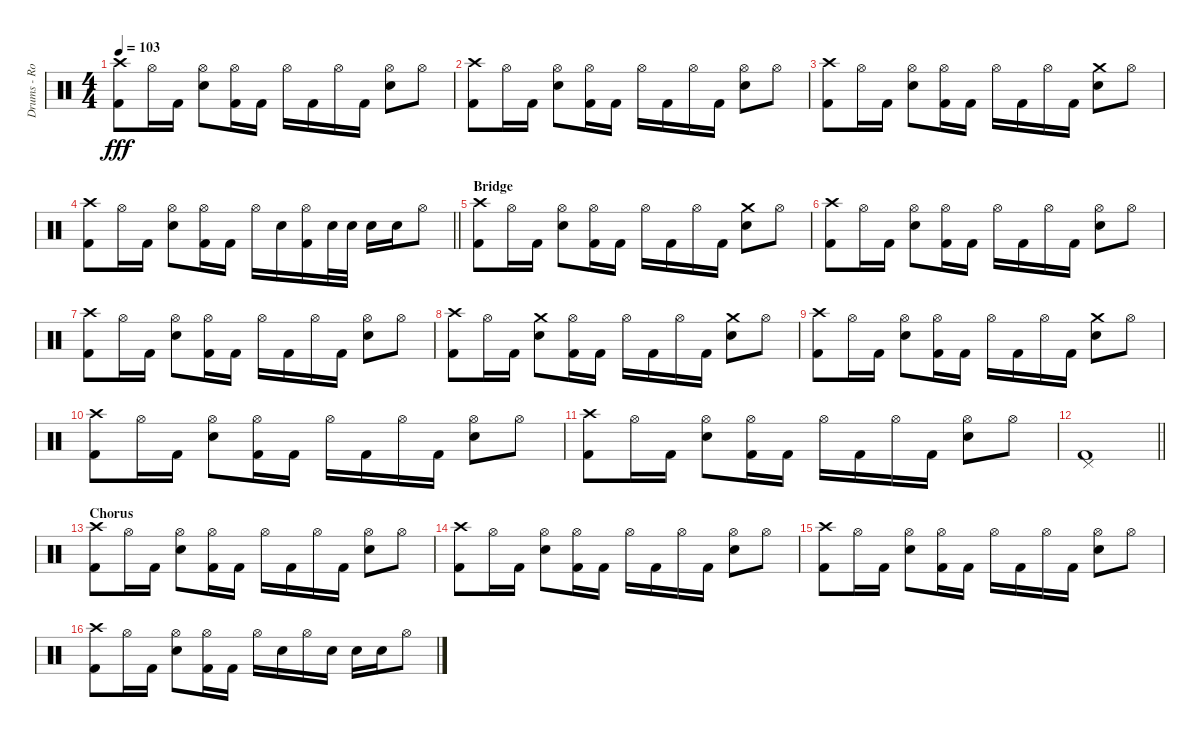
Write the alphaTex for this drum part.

\track ("Drums - Rob Bourdon" "Drums - Ro") {instrument percussion}
\staff {score}
\articulation defaults
\ts (4 4)
\tempo 103
\clef neutral
\ks c
("Crash high (hit)" "Kick (hit) 2").8{dy fff} "Hi-Hat (open)".16 "Kick (hit) 2".16 ("Hi-Hat (open)" "Snare (hit) 2").8 ("Hi-Hat (open)" "Kick (hit) 2").16 "Kick (hit) 2".16 "Hi-Hat (open)".16 "Kick (hit) 2".16 "Hi-Hat (open)".16 "Kick (hit) 2".16 ("Hi-Hat (open)" "Snare (hit) 2").8 "Hi-Hat (open)".8 |
("Crash high (hit)" "Kick (hit) 2").8 "Hi-Hat (open)".16 "Kick (hit) 2".16 ("Hi-Hat (open)" "Snare (hit) 2").8 ("Hi-Hat (open)" "Kick (hit) 2").16 "Kick (hit) 2".16 "Hi-Hat (open)".16 "Kick (hit) 2".16 "Hi-Hat (open)".16 "Kick (hit) 2".16 ("Hi-Hat (open)" "Snare (hit) 2").8 "Hi-Hat (open)".8 |
("Crash high (hit)" "Kick (hit) 2").8 "Hi-Hat (open)".16 "Kick (hit) 2".16 ("Hi-Hat (open)" "Snare (hit) 2").8 ("Hi-Hat (open)" "Kick (hit) 2").16 "Kick (hit) 2".16 "Hi-Hat (open)".16 "Kick (hit) 2".16 "Hi-Hat (open)".16 "Kick (hit) 2".16 ("Crash medium (hit)" "Snare (hit) 2").8 "Hi-Hat (open)".8 |
\barLineRight lightlight
("Crash high (hit)" "Kick (hit) 2").8 "Hi-Hat (open)".16 "Kick (hit) 2".16 ("Hi-Hat (open)" "Snare (hit) 2").8 ("Hi-Hat (open)" "Kick (hit) 2").16 "Kick (hit) 2".16 "Hi-Hat (open)".16 "Snare (hit) 2".16 ("Hi-Hat (open)" "Kick (hit) 2").16 "Snare (hit) 2".32 "Snare (hit) 2".32 "Snare (hit) 2".16 "Snare (hit) 2".16 "Hi-Hat (open)".8 |
\section ("" "Bridge")
("Crash high (hit)" "Kick (hit) 2").8 "Hi-Hat (open)".16 "Kick (hit) 2".16 ("Hi-Hat (open)" "Snare (hit) 2").8 ("Hi-Hat (open)" "Kick (hit) 2").16 "Kick (hit) 2".16 "Hi-Hat (open)".16 "Kick (hit) 2".16 "Hi-Hat (open)".16 "Kick (hit) 2".16 ("Crash medium (hit)" "Snare (hit) 2").8 "Hi-Hat (open)".8 |
("Crash high (hit)" "Kick (hit) 2").8 "Hi-Hat (open)".16 "Kick (hit) 2".16 ("Hi-Hat (open)" "Snare (hit) 2").8 ("Hi-Hat (open)" "Kick (hit) 2").16 "Kick (hit) 2".16 "Hi-Hat (open)".16 "Kick (hit) 2".16 "Hi-Hat (open)".16 "Kick (hit) 2".16 ("Hi-Hat (open)" "Snare (hit) 2").8 "Hi-Hat (open)".8 |
("Crash high (hit)" "Kick (hit) 2").8 "Hi-Hat (open)".16 "Kick (hit) 2".16 ("Hi-Hat (open)" "Snare (hit) 2").8 ("Hi-Hat (open)" "Kick (hit) 2").16 "Kick (hit) 2".16 "Hi-Hat (open)".16 "Kick (hit) 2".16 "Hi-Hat (open)".16 "Kick (hit) 2".16 ("Hi-Hat (open)" "Snare (hit) 2").8 "Hi-Hat (open)".8 |
("Crash high (hit)" "Kick (hit) 2").8 "Hi-Hat (open)".16 "Kick (hit) 2".16 ("Crash medium (hit)" "Snare (hit) 2").8 ("Hi-Hat (open)" "Kick (hit) 2").16 "Kick (hit) 2".16 "Hi-Hat (open)".16 "Kick (hit) 2".16 "Hi-Hat (open)".16 "Kick (hit) 2".16 ("Crash medium (hit)" "Snare (hit) 2").8 "Hi-Hat (open)".8 |
("Crash high (hit)" "Kick (hit) 2").8 "Hi-Hat (open)".16 "Kick (hit) 2".16 ("Hi-Hat (open)" "Snare (hit) 2").8 ("Hi-Hat (open)" "Kick (hit) 2").16 "Kick (hit) 2".16 "Hi-Hat (open)".16 "Kick (hit) 2".16 "Hi-Hat (open)".16 "Kick (hit) 2".16 ("Crash medium (hit)" "Snare (hit) 2").8 "Hi-Hat (open)".8 |
("Crash high (hit)" "Kick (hit) 2").8 "Hi-Hat (open)".16 "Kick (hit) 2".16 ("Hi-Hat (open)" "Snare (hit) 2").8 ("Hi-Hat (open)" "Kick (hit) 2").16 "Kick (hit) 2".16 "Hi-Hat (open)".16 "Kick (hit) 2".16 "Hi-Hat (open)".16 "Kick (hit) 2".16 ("Hi-Hat (open)" "Snare (hit) 2").8 "Hi-Hat (open)".8 |
("Crash high (hit)" "Kick (hit) 2").8 "Hi-Hat (open)".16 "Kick (hit) 2".16 ("Hi-Hat (open)" "Snare (hit) 2").8 ("Hi-Hat (open)" "Kick (hit) 2").16 "Kick (hit) 2".16 "Hi-Hat (open)".16 "Kick (hit) 2".16 "Hi-Hat (open)".16 "Kick (hit) 2".16 ("Hi-Hat (open)" "Snare (hit) 2").8 "Hi-Hat (open)".8 |
\barLineRight lightlight
("Pedal Hi-Hat (hit)" "Kick (hit) 2").1 |
\section ("" "Chorus")
("Crash high (hit)" "Kick (hit) 2").8 "Hi-Hat (open)".16 "Kick (hit) 2".16 ("Hi-Hat (open)" "Snare (hit) 2").8 ("Hi-Hat (open)" "Kick (hit) 2").16 "Kick (hit) 2".16 "Hi-Hat (open)".16 "Kick (hit) 2".16 "Hi-Hat (open)".16 "Kick (hit) 2".16 ("Hi-Hat (open)" "Snare (hit) 2").8 "Hi-Hat (open)".8 |
("Crash high (hit)" "Kick (hit) 2").8 "Hi-Hat (open)".16 "Kick (hit) 2".16 ("Hi-Hat (open)" "Snare (hit) 2").8 ("Hi-Hat (open)" "Kick (hit) 2").16 "Kick (hit) 2".16 "Hi-Hat (open)".16 "Kick (hit) 2".16 "Hi-Hat (open)".16 "Kick (hit) 2".16 ("Hi-Hat (open)" "Snare (hit) 2").8 "Hi-Hat (open)".8 |
("Crash high (hit)" "Kick (hit) 2").8 "Hi-Hat (open)".16 "Kick (hit) 2".16 ("Hi-Hat (open)" "Snare (hit) 2").8 ("Hi-Hat (open)" "Kick (hit) 2").16 "Kick (hit) 2".16 "Hi-Hat (open)".16 "Kick (hit) 2".16 "Hi-Hat (open)".16 "Kick (hit) 2".16 ("Hi-Hat (open)" "Snare (hit) 2").8 "Hi-Hat (open)".8 |
("Crash high (hit)" "Kick (hit) 2").8 "Hi-Hat (open)".16 "Kick (hit) 2".16 ("Hi-Hat (open)" "Snare (hit) 2").8 ("Hi-Hat (open)" "Kick (hit) 2").16 "Kick (hit) 2".16 "Hi-Hat (open)".16 "Snare (hit) 2".16 "Hi-Hat (open)".16 "Snare (hit) 2".16 "Snare (hit) 2".16 "Snare (hit) 2".16 "Hi-Hat (open)".8
